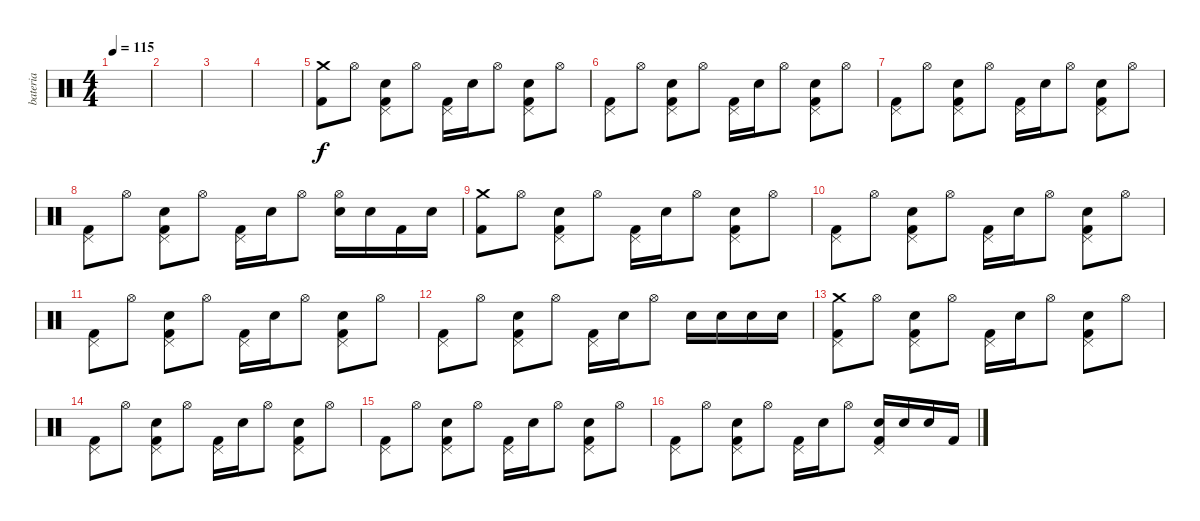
\track ("bateria" "bateria") {instrument percussion}
\staff {score}
\articulation defaults
\ts (4 4)
\tempo 115
\clef neutral
\ks c
|
|
|
|
("Crash medium (hit)" "Kick (hit) 2").8 "Hi-Hat (open)".8 ("Pedal Hi-Hat (hit)" "Snare (hit) 2" "Kick (hit) 2").8 "Hi-Hat (open)".8 ("Pedal Hi-Hat (hit)" "Kick (hit) 2").16 "Snare (hit) 2".16 "Hi-Hat (open)".8 ("Pedal Hi-Hat (hit)" "Snare (hit) 2" "Kick (hit) 2").8 "Hi-Hat (open)".8 |
("Pedal Hi-Hat (hit)" "Kick (hit) 2").8 "Hi-Hat (open)".8 ("Pedal Hi-Hat (hit)" "Snare (hit) 2" "Kick (hit) 2").8 "Hi-Hat (open)".8 ("Pedal Hi-Hat (hit)" "Kick (hit) 2").16 "Snare (hit) 2".16 "Hi-Hat (open)".8 ("Pedal Hi-Hat (hit)" "Snare (hit) 2" "Kick (hit) 2").8 "Hi-Hat (open)".8 |
("Pedal Hi-Hat (hit)" "Kick (hit) 2").8 "Hi-Hat (open)".8 ("Pedal Hi-Hat (hit)" "Snare (hit) 2" "Kick (hit) 2").8 "Hi-Hat (open)".8 ("Pedal Hi-Hat (hit)" "Kick (hit) 2").16 "Snare (hit) 2".16 "Hi-Hat (open)".8 ("Pedal Hi-Hat (hit)" "Snare (hit) 2" "Kick (hit) 2").8 "Hi-Hat (open)".8 |
("Pedal Hi-Hat (hit)" "Kick (hit) 2").8 "Hi-Hat (open)".8 ("Pedal Hi-Hat (hit)" "Snare (hit) 2" "Kick (hit) 2").8 "Hi-Hat (open)".8 ("Pedal Hi-Hat (hit)" "Kick (hit) 2").16 "Snare (hit) 2".16 "Hi-Hat (open)".8 ("Hi-Hat (open)" "Snare (hit) 2").16 "Snare (hit) 2".16 "Kick (hit) 2".16 "Snare (hit) 2".16 |
("Crash medium (hit)" "Kick (hit) 2").8 "Hi-Hat (open)".8 ("Pedal Hi-Hat (hit)" "Snare (hit) 2" "Kick (hit) 2").8 "Hi-Hat (open)".8 ("Pedal Hi-Hat (hit)" "Kick (hit) 2").16 "Snare (hit) 2".16 "Hi-Hat (open)".8 ("Pedal Hi-Hat (hit)" "Snare (hit) 2" "Kick (hit) 2").8 "Hi-Hat (open)".8 |
("Pedal Hi-Hat (hit)" "Kick (hit) 2").8 "Hi-Hat (open)".8 ("Pedal Hi-Hat (hit)" "Snare (hit) 2" "Kick (hit) 2").8 "Hi-Hat (open)".8 ("Pedal Hi-Hat (hit)" "Kick (hit) 2").16 "Snare (hit) 2".16 "Hi-Hat (open)".8 ("Pedal Hi-Hat (hit)" "Snare (hit) 2" "Kick (hit) 2").8 "Hi-Hat (open)".8 |
("Pedal Hi-Hat (hit)" "Kick (hit) 2").8 "Hi-Hat (open)".8 ("Pedal Hi-Hat (hit)" "Snare (hit) 2" "Kick (hit) 2").8 "Hi-Hat (open)".8 ("Pedal Hi-Hat (hit)" "Kick (hit) 2").16 "Snare (hit) 2".16 "Hi-Hat (open)".8 ("Pedal Hi-Hat (hit)" "Snare (hit) 2" "Kick (hit) 2").8 "Hi-Hat (open)".8 |
("Pedal Hi-Hat (hit)" "Kick (hit) 2").8 "Hi-Hat (open)".8 ("Pedal Hi-Hat (hit)" "Snare (hit) 2" "Kick (hit) 2").8 "Hi-Hat (open)".8 ("Pedal Hi-Hat (hit)" "Kick (hit) 2").16 "Snare (hit) 2".16 "Hi-Hat (open)".8 "Snare (hit) 2".16 "Snare (hit) 2".16 "Snare (hit) 2".16 "Snare (hit) 2".16 |
("Crash medium (hit)" "Pedal Hi-Hat (hit)" "Kick (hit) 2").8 "Hi-Hat (open)".8 ("Pedal Hi-Hat (hit)" "Snare (hit) 2" "Kick (hit) 2").8 "Hi-Hat (open)".8 ("Pedal Hi-Hat (hit)" "Kick (hit) 2").16 "Snare (hit) 2".16 "Hi-Hat (open)".8 ("Pedal Hi-Hat (hit)" "Snare (hit) 2" "Kick (hit) 2").8 "Hi-Hat (open)".8 |
("Pedal Hi-Hat (hit)" "Kick (hit) 2").8 "Hi-Hat (open)".8 ("Pedal Hi-Hat (hit)" "Snare (hit) 2" "Kick (hit) 2").8 "Hi-Hat (open)".8 ("Pedal Hi-Hat (hit)" "Kick (hit) 2").16 "Snare (hit) 2".16 "Hi-Hat (open)".8 ("Pedal Hi-Hat (hit)" "Snare (hit) 2" "Kick (hit) 2").8 "Hi-Hat (open)".8 |
("Pedal Hi-Hat (hit)" "Kick (hit) 2").8 "Hi-Hat (open)".8 ("Pedal Hi-Hat (hit)" "Snare (hit) 2" "Kick (hit) 2").8 "Hi-Hat (open)".8 ("Pedal Hi-Hat (hit)" "Kick (hit) 2").16 "Snare (hit) 2".16 "Hi-Hat (open)".8 ("Pedal Hi-Hat (hit)" "Snare (hit) 2" "Kick (hit) 2").8 "Hi-Hat (open)".8 |
("Pedal Hi-Hat (hit)" "Kick (hit) 2").8 "Hi-Hat (open)".8 ("Pedal Hi-Hat (hit)" "Snare (hit) 2" "Kick (hit) 2").8 "Hi-Hat (open)".8 ("Pedal Hi-Hat (hit)" "Kick (hit) 2").16 "Snare (hit) 2".16 "Hi-Hat (open)".8 ("Pedal Hi-Hat (hit)" "Snare (hit) 2" "Kick (hit) 2").16 "Snare (hit) 2".16 "Snare (hit) 2".16 "Kick (hit) 2".16
